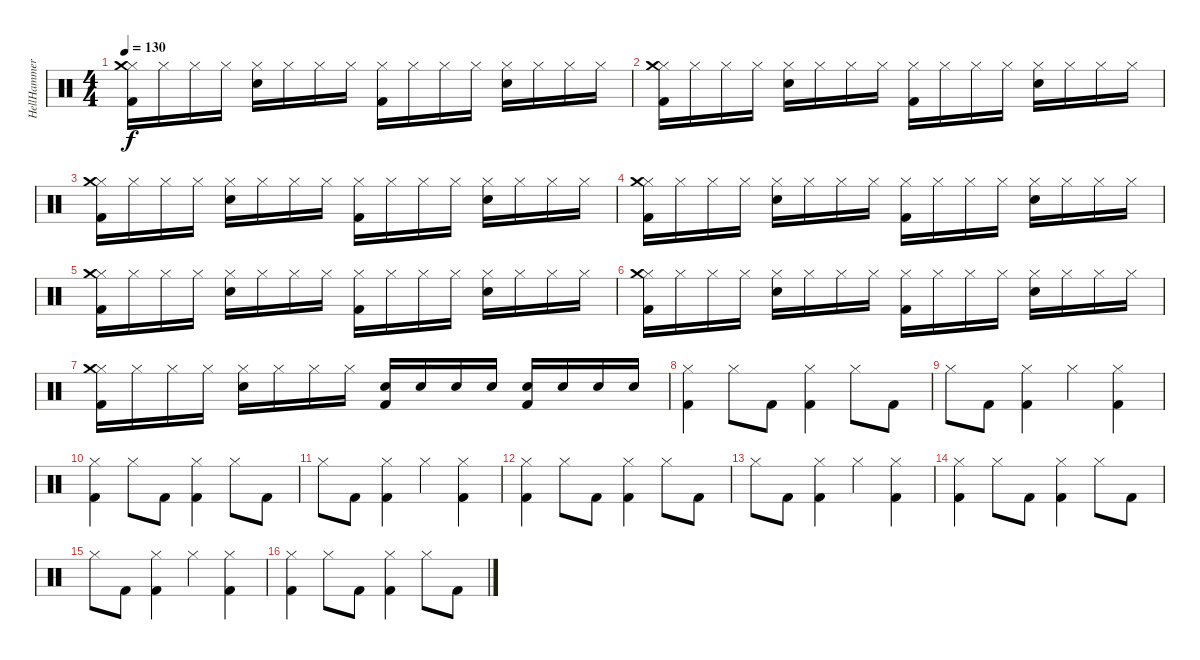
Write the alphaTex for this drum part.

\track ("HellHammer - Drums" "HellHammer") {instrument percussion}
\staff {score}
\articulation defaults
\ts (4 4)
\tempo 130
\clef neutral
\ks c
("Kick (hit) 2" "Hi-Hat (closed)" "Crash medium (hit)").16{dy f} "Hi-Hat (closed)".16 "Hi-Hat (closed)".16 "Hi-Hat (closed)".16 ("Hi-Hat (closed)" "Snare (hit) 2").16 "Hi-Hat (closed)".16 "Hi-Hat (closed)".16 "Hi-Hat (closed)".16 ("Hi-Hat (closed)" "Kick (hit) 2").16 "Hi-Hat (closed)".16 "Hi-Hat (closed)".16 "Hi-Hat (closed)".16 ("Hi-Hat (closed)" "Snare (hit) 2").16 "Hi-Hat (closed)".16 "Hi-Hat (closed)".16 "Hi-Hat (closed)".16 |
("Kick (hit) 2" "Hi-Hat (closed)" "Crash medium (hit)").16 "Hi-Hat (closed)".16 "Hi-Hat (closed)".16 "Hi-Hat (closed)".16 ("Hi-Hat (closed)" "Snare (hit) 2").16 "Hi-Hat (closed)".16 "Hi-Hat (closed)".16 "Hi-Hat (closed)".16 ("Hi-Hat (closed)" "Kick (hit) 2").16 "Hi-Hat (closed)".16 "Hi-Hat (closed)".16 "Hi-Hat (closed)".16 ("Hi-Hat (closed)" "Snare (hit) 2").16 "Hi-Hat (closed)".16 "Hi-Hat (closed)".16 "Hi-Hat (closed)".16 |
("Kick (hit) 2" "Hi-Hat (closed)" "Crash medium (hit)").16 "Hi-Hat (closed)".16 "Hi-Hat (closed)".16 "Hi-Hat (closed)".16 ("Hi-Hat (closed)" "Snare (hit) 2").16 "Hi-Hat (closed)".16 "Hi-Hat (closed)".16 "Hi-Hat (closed)".16 ("Hi-Hat (closed)" "Kick (hit) 2").16 "Hi-Hat (closed)".16 "Hi-Hat (closed)".16 "Hi-Hat (closed)".16 ("Hi-Hat (closed)" "Snare (hit) 2").16 "Hi-Hat (closed)".16 "Hi-Hat (closed)".16 "Hi-Hat (closed)".16 |
("Kick (hit) 2" "Hi-Hat (closed)" "Crash medium (hit)").16 "Hi-Hat (closed)".16 "Hi-Hat (closed)".16 "Hi-Hat (closed)".16 ("Hi-Hat (closed)" "Snare (hit) 2").16 "Hi-Hat (closed)".16 "Hi-Hat (closed)".16 "Hi-Hat (closed)".16 ("Hi-Hat (closed)" "Kick (hit) 2").16 "Hi-Hat (closed)".16 "Hi-Hat (closed)".16 "Hi-Hat (closed)".16 ("Hi-Hat (closed)" "Snare (hit) 2").16 "Hi-Hat (closed)".16 "Hi-Hat (closed)".16 "Hi-Hat (closed)".16 |
("Kick (hit) 2" "Hi-Hat (closed)" "Crash medium (hit)").16 "Hi-Hat (closed)".16 "Hi-Hat (closed)".16 "Hi-Hat (closed)".16 ("Hi-Hat (closed)" "Snare (hit) 2").16 "Hi-Hat (closed)".16 "Hi-Hat (closed)".16 "Hi-Hat (closed)".16 ("Hi-Hat (closed)" "Kick (hit) 2").16 "Hi-Hat (closed)".16 "Hi-Hat (closed)".16 "Hi-Hat (closed)".16 ("Hi-Hat (closed)" "Snare (hit) 2").16 "Hi-Hat (closed)".16 "Hi-Hat (closed)".16 "Hi-Hat (closed)".16 |
("Kick (hit) 2" "Hi-Hat (closed)" "Crash medium (hit)").16 "Hi-Hat (closed)".16 "Hi-Hat (closed)".16 "Hi-Hat (closed)".16 ("Hi-Hat (closed)" "Snare (hit) 2").16 "Hi-Hat (closed)".16 "Hi-Hat (closed)".16 "Hi-Hat (closed)".16 ("Hi-Hat (closed)" "Kick (hit) 2").16 "Hi-Hat (closed)".16 "Hi-Hat (closed)".16 "Hi-Hat (closed)".16 ("Hi-Hat (closed)" "Snare (hit) 2").16 "Hi-Hat (closed)".16 "Hi-Hat (closed)".16 "Hi-Hat (closed)".16 |
("Kick (hit) 2" "Hi-Hat (closed)" "Crash medium (hit)").16 "Hi-Hat (closed)".16 "Hi-Hat (closed)".16 "Hi-Hat (closed)".16 ("Hi-Hat (closed)" "Snare (hit) 2").16 "Hi-Hat (closed)".16 "Hi-Hat (closed)".16 "Hi-Hat (closed)".16 ("Kick (hit) 2" "Snare (hit) 2").16 "Snare (hit) 2".16 "Snare (hit) 2".16 "Snare (hit) 2".16 ("Kick (hit) 2" "Snare (hit) 2").16 "Snare (hit) 2".16 "Snare (hit) 2".16 "Snare (hit) 2".16 |
("Hi-Hat (closed)" "Kick (hit) 2").4{volume 16} "Hi-Hat (closed)".8 "Kick (hit) 2".8 ("Hi-Hat (closed)" "Kick (hit) 2").4 "Hi-Hat (closed)".8 "Kick (hit) 2".8 |
"Hi-Hat (closed)".8 "Kick (hit) 2".8 ("Hi-Hat (closed)" "Kick (hit) 2").4 "Hi-Hat (closed)".4 ("Hi-Hat (closed)" "Kick (hit) 2").4 |
("Hi-Hat (closed)" "Kick (hit) 2").4 "Hi-Hat (closed)".8 "Kick (hit) 2".8 ("Hi-Hat (closed)" "Kick (hit) 2").4 "Hi-Hat (closed)".8 "Kick (hit) 2".8 |
"Hi-Hat (closed)".8 "Kick (hit) 2".8 ("Hi-Hat (closed)" "Kick (hit) 2").4 "Hi-Hat (closed)".4 ("Hi-Hat (closed)" "Kick (hit) 2").4 |
("Hi-Hat (closed)" "Kick (hit) 2").4 "Hi-Hat (closed)".8 "Kick (hit) 2".8 ("Hi-Hat (closed)" "Kick (hit) 2").4 "Hi-Hat (closed)".8 "Kick (hit) 2".8 |
"Hi-Hat (closed)".8 "Kick (hit) 2".8 ("Hi-Hat (closed)" "Kick (hit) 2").4 "Hi-Hat (closed)".4 ("Hi-Hat (closed)" "Kick (hit) 2").4 |
("Hi-Hat (closed)" "Kick (hit) 2").4 "Hi-Hat (closed)".8 "Kick (hit) 2".8 ("Hi-Hat (closed)" "Kick (hit) 2").4 "Hi-Hat (closed)".8 "Kick (hit) 2".8 |
"Hi-Hat (closed)".8 "Kick (hit) 2".8 ("Hi-Hat (closed)" "Kick (hit) 2").4 "Hi-Hat (closed)".4 ("Hi-Hat (closed)" "Kick (hit) 2").4 |
("Hi-Hat (closed)" "Kick (hit) 2").4 "Hi-Hat (closed)".8 "Kick (hit) 2".8 ("Hi-Hat (closed)" "Kick (hit) 2").4 "Hi-Hat (closed)".8 "Kick (hit) 2".8
